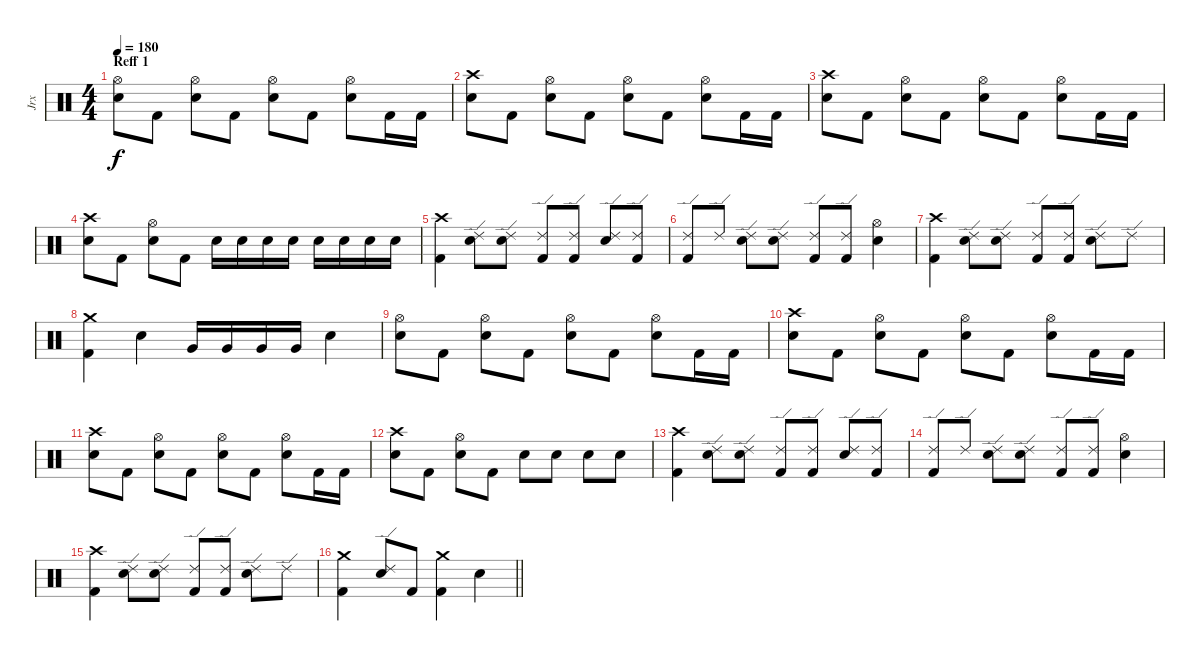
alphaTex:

\track ("Jrx" "Jrx") {instrument percussion}
\staff {score}
\articulation defaults
\ts (4 4)
\section ("" "Reff 1")
\tempo 180
\clef neutral
\ks c
("Electric Snare (hit)" "Hi-Hat (open)").8{dy f} "Kick (hit) 2".8 ("Electric Snare (hit)" "Hi-Hat (open)").8 "Kick (hit) 2".8 ("Snare (hit) 2" "Hi-Hat (open)").8 "Kick (hit) 2".8 ("Electric Snare (hit)" "Hi-Hat (open)").8 "Kick (hit) 2".16 "Kick (hit) 2".16 |
("Electric Snare (hit)" "Crash high (hit)").8 "Kick (hit) 2".8 ("Electric Snare (hit)" "Hi-Hat (open)").8 "Kick (hit) 2".8 ("Snare (hit) 2" "Hi-Hat (open)").8 "Kick (hit) 2".8 ("Electric Snare (hit)" "Hi-Hat (open)").8 "Kick (hit) 2".16 "Kick (hit) 2".16 |
("Electric Snare (hit)" "Crash high (hit)").8 "Kick (hit) 2".8 ("Electric Snare (hit)" "Hi-Hat (open)").8 "Kick (hit) 2".8 ("Snare (hit) 2" "Hi-Hat (open)").8 "Kick (hit) 2".8 ("Electric Snare (hit)" "Hi-Hat (open)").8 "Kick (hit) 2".16 "Kick (hit) 2".16 |
("Electric Snare (hit)" "Crash high (hit)").8 "Kick (hit) 2".8 ("Electric Snare (hit)" "Hi-Hat (open)").8 "Kick (hit) 2".8 "Electric Snare (hit)".16 "Electric Snare (hit)".16 "Electric Snare (hit)".16 "Electric Snare (hit)".16 "Electric Snare (hit)".16 "Electric Snare (hit)".16 "Electric Snare (hit)".16 "Electric Snare (hit)".16 |
("Kick (hit) 2" "Crash high (hit)").4 ("Electric Snare (hit)" "Ride (edge) 2").8 ("Electric Snare (hit)" "Ride (edge) 2").8 ("Kick (hit) 2" "Ride (edge) 2").8 ("Kick (hit) 2" "Ride (edge) 2").8 ("Electric Snare (hit)" "Ride (edge) 2").8 ("Kick (hit) 2" "Ride (edge) 2").8 |
("Kick (hit) 2" "Ride (edge) 2").8 "Ride (edge) 2".8 ("Electric Snare (hit)" "Ride (edge) 2").8 ("Electric Snare (hit)" "Ride (edge) 2").8 ("Kick (hit) 2" "Ride (edge) 2").8 ("Kick (hit) 2" "Ride (edge) 2").8 ("Electric Snare (hit)" "Hi-Hat (open)").4 |
("Kick (hit) 2" "Crash high (hit)").4 ("Electric Snare (hit)" "Ride (edge) 2").8 ("Electric Snare (hit)" "Ride (edge) 2").8 ("Kick (hit) 2" "Ride (edge) 2").8 ("Kick (hit) 2" "Ride (edge) 2").8 ("Electric Snare (hit)" "Ride (edge) 2").8 "Ride (edge) 2".8 |
("Kick (hit) 2" "Crash medium (hit)").4 "Electric Snare (hit)".4 "Very Low Tom (hit)".16 "Very Low Tom (hit)".16 "Very Low Tom (hit)".16 "Very Low Tom (hit)".16 "Electric Snare (hit)".4 |
("Electric Snare (hit)" "Hi-Hat (open)").8 "Kick (hit) 2".8 ("Electric Snare (hit)" "Hi-Hat (open)").8 "Kick (hit) 2".8 ("Snare (hit) 2" "Hi-Hat (open)").8 "Kick (hit) 2".8 ("Electric Snare (hit)" "Hi-Hat (open)").8 "Kick (hit) 2".16 "Kick (hit) 2".16 |
("Electric Snare (hit)" "Crash high (hit)").8 "Kick (hit) 2".8 ("Electric Snare (hit)" "Hi-Hat (open)").8 "Kick (hit) 2".8 ("Snare (hit) 2" "Hi-Hat (open)").8 "Kick (hit) 2".8 ("Electric Snare (hit)" "Hi-Hat (open)").8 "Kick (hit) 2".16 "Kick (hit) 2".16 |
("Electric Snare (hit)" "Crash high (hit)").8 "Kick (hit) 2".8 ("Electric Snare (hit)" "Hi-Hat (open)").8 "Kick (hit) 2".8 ("Snare (hit) 2" "Hi-Hat (open)").8 "Kick (hit) 2".8 ("Electric Snare (hit)" "Hi-Hat (open)").8 "Kick (hit) 2".16 "Kick (hit) 2".16 |
("Electric Snare (hit)" "Crash high (hit)").8 "Kick (hit) 2".8 ("Electric Snare (hit)" "Hi-Hat (open)").8 "Kick (hit) 2".8 "Electric Snare (hit)".8 "Electric Snare (hit)".8 "Electric Snare (hit)".8 "Electric Snare (hit)".8 |
("Kick (hit) 2" "Crash high (hit)").4 ("Electric Snare (hit)" "Ride (edge) 2").8 ("Electric Snare (hit)" "Ride (edge) 2").8 ("Kick (hit) 2" "Ride (edge) 2").8 ("Kick (hit) 2" "Ride (edge) 2").8 ("Electric Snare (hit)" "Ride (edge) 2").8 ("Kick (hit) 2" "Ride (edge) 2").8 |
("Kick (hit) 2" "Ride (edge) 2").8 "Ride (edge) 2".8 ("Electric Snare (hit)" "Ride (edge) 2").8 ("Electric Snare (hit)" "Ride (edge) 2").8 ("Kick (hit) 2" "Ride (edge) 2").8 ("Kick (hit) 2" "Ride (edge) 2").8 ("Electric Snare (hit)" "Hi-Hat (open)").4 |
("Kick (hit) 2" "Crash high (hit)").4 ("Electric Snare (hit)" "Ride (edge) 2").8 ("Electric Snare (hit)" "Ride (edge) 2").8 ("Kick (hit) 2" "Ride (edge) 2").8 ("Kick (hit) 2" "Ride (edge) 2").8 ("Electric Snare (hit)" "Ride (edge) 2").8 "Ride (edge) 2".8 |
\barLineRight lightlight
("Kick (hit) 2" "Crash medium (hit)").4 ("Electric Snare (hit)" "Ride (edge) 2").8 "Kick (hit) 2".8 ("Kick (hit) 2" "Crash medium (hit)").4 "Electric Snare (hit)".4
